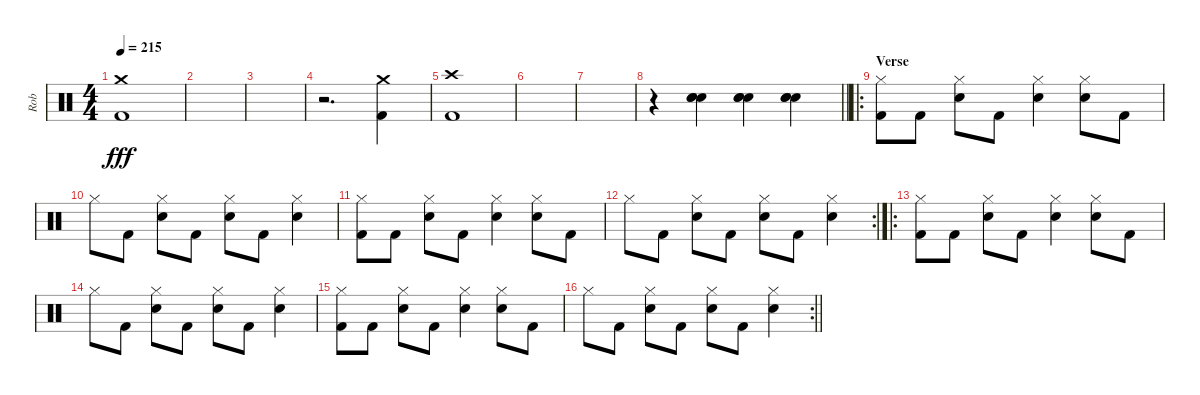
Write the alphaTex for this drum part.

\track ("Rob" "Rob") {instrument percussion}
\staff {score}
\articulation defaults
\ts (4 4)
\tempo 215
\clef neutral
\ks c
("Crash medium (hit)" "Kick (hit) 2").1{dy fff} |
|
|
r.2{d} ("Crash medium (hit)" "Kick (hit) 2").4 |
("Crash high (hit)" "Kick (hit) 2").1 |
|
|
\barLineRight lightlight
r.4 ("Hand Clap (hit)" "Hand Clap (hit)" "Hand Clap (hit)").4 ("Hand Clap (hit)" "Hand Clap (hit)" "Hand Clap (hit)").4 ("Hand Clap (hit)" "Hand Clap (hit)" "Hand Clap (hit)").4 |
\ro
\section ("" "Verse")
("Hi-Hat (closed)" "Kick (hit) 2").8{volume 16} "Kick (hit) 2".8 ("Hi-Hat (closed)" "Electric Snare (hit)").8 "Kick (hit) 2".8 ("Hi-Hat (closed)" "Electric Snare (hit)").4 ("Hi-Hat (closed)" "Electric Snare (hit)").8 "Kick (hit) 2".8 |
"Hi-Hat (closed)".8 "Kick (hit) 2".8 ("Hi-Hat (closed)" "Electric Snare (hit)").8 "Kick (hit) 2".8 ("Hi-Hat (closed)" "Electric Snare (hit)").8 "Kick (hit) 2".8 ("Hi-Hat (closed)" "Electric Snare (hit)").4 |
("Hi-Hat (closed)" "Kick (hit) 2").8 "Kick (hit) 2".8 ("Hi-Hat (closed)" "Electric Snare (hit)").8 "Kick (hit) 2".8 ("Hi-Hat (closed)" "Electric Snare (hit)").4 ("Hi-Hat (closed)" "Electric Snare (hit)").8 "Kick (hit) 2".8 |
\rc 2 "Hi-Hat (closed)".8 "Kick (hit) 2".8
("Hi-Hat (closed)" "Electric Snare (hit)").8 "Kick (hit) 2".8 ("Hi-Hat (closed)" "Electric Snare (hit)").8 "Kick (hit) 2".8 ("Hi-Hat (closed)" "Electric Snare (hit)").4 |
\ro
("Hi-Hat (closed)" "Kick (hit) 2").8{volume 16} "Kick (hit) 2".8 ("Hi-Hat (closed)" "Electric Snare (hit)").8 "Kick (hit) 2".8 ("Hi-Hat (closed)" "Electric Snare (hit)").4 ("Hi-Hat (closed)" "Electric Snare (hit)").8 "Kick (hit) 2".8 |
"Hi-Hat (closed)".8 "Kick (hit) 2".8 ("Hi-Hat (closed)" "Electric Snare (hit)").8 "Kick (hit) 2".8 ("Hi-Hat (closed)" "Electric Snare (hit)").8 "Kick (hit) 2".8 ("Hi-Hat (closed)" "Electric Snare (hit)").4 |
("Hi-Hat (closed)" "Kick (hit) 2").8 "Kick (hit) 2".8 ("Hi-Hat (closed)" "Electric Snare (hit)").8 "Kick (hit) 2".8 ("Hi-Hat (closed)" "Electric Snare (hit)").4 ("Hi-Hat (closed)" "Electric Snare (hit)").8 "Kick (hit) 2".8 |
\rc 2
\barLineRight lightlight "Hi-Hat (closed)".8 "Kick (hit) 2".8
("Hi-Hat (closed)" "Electric Snare (hit)").8 "Kick (hit) 2".8 ("Hi-Hat (closed)" "Electric Snare (hit)").8 "Kick (hit) 2".8 ("Hi-Hat (closed)" "Electric Snare (hit)").4
